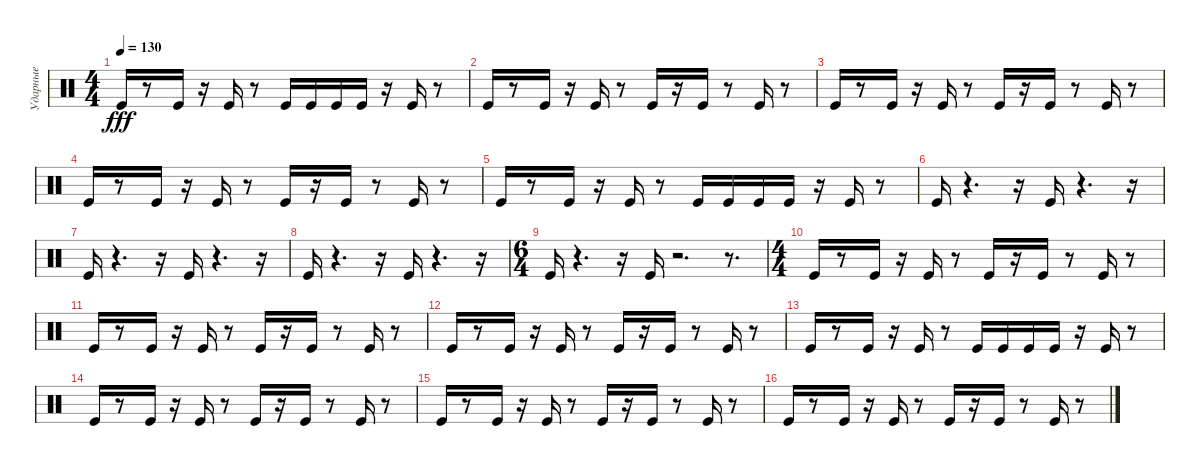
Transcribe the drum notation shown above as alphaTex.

\track ("Ударные" "Ударные") {instrument percussion}
\staff {score}
\articulation defaults
\ts (4 4)
\tempo 130
\clef neutral
\ks c "Kick (hit)".16{dy fff}
r.8 "Kick (hit)".16 r.16 "Kick (hit)".16 r.8 "Kick (hit)".16 "Kick (hit)".16 "Kick (hit)".16 "Kick (hit)".16 r.16 "Kick (hit)".16 r.8 |
"Kick (hit)".16 r.8 "Kick (hit)".16 r.16 "Kick (hit)".16 r.8 "Kick (hit)".16 r.16 "Kick (hit)".16 r.8 "Kick (hit)".16 r.8 |
"Kick (hit)".16 r.8 "Kick (hit)".16 r.16 "Kick (hit)".16 r.8 "Kick (hit)".16 r.16 "Kick (hit)".16 r.8 "Kick (hit)".16 r.8 |
"Kick (hit)".16 r.8 "Kick (hit)".16 r.16 "Kick (hit)".16 r.8 "Kick (hit)".16 r.16 "Kick (hit)".16 r.8 "Kick (hit)".16 r.8 |
"Kick (hit)".16 r.8 "Kick (hit)".16 r.16 "Kick (hit)".16 r.8 "Kick (hit)".16 "Kick (hit)".16 "Kick (hit)".16 "Kick (hit)".16 r.16 "Kick (hit)".16 r.8 |
"Kick (hit)".16 r.4{d} r.16 "Kick (hit)".16 r.4{d} r.16 |
"Kick (hit)".16 r.4{d} r.16 "Kick (hit)".16 r.4{d} r.16 |
"Kick (hit)".16 r.4{d} r.16 "Kick (hit)".16 r.4{d} r.16 |
\ts (6 4)
"Kick (hit)".16 r.4{d} r.16 "Kick (hit)".16 r.2{d} r.8{d} |
\ts (4 4)
"Kick (hit)".16 r.8 "Kick (hit)".16 r.16 "Kick (hit)".16 r.8 "Kick (hit)".16 r.16 "Kick (hit)".16 r.8 "Kick (hit)".16 r.8 |
"Kick (hit)".16 r.8 "Kick (hit)".16 r.16 "Kick (hit)".16 r.8 "Kick (hit)".16 r.16 "Kick (hit)".16 r.8 "Kick (hit)".16 r.8 |
"Kick (hit)".16 r.8 "Kick (hit)".16 r.16 "Kick (hit)".16 r.8 "Kick (hit)".16 r.16 "Kick (hit)".16 r.8 "Kick (hit)".16 r.8 |
"Kick (hit)".16 r.8 "Kick (hit)".16 r.16 "Kick (hit)".16 r.8 "Kick (hit)".16 "Kick (hit)".16 "Kick (hit)".16 "Kick (hit)".16 r.16 "Kick (hit)".16 r.8 |
"Kick (hit)".16 r.8 "Kick (hit)".16 r.16 "Kick (hit)".16 r.8 "Kick (hit)".16 r.16 "Kick (hit)".16 r.8 "Kick (hit)".16 r.8 |
"Kick (hit)".16 r.8 "Kick (hit)".16 r.16 "Kick (hit)".16 r.8 "Kick (hit)".16 r.16 "Kick (hit)".16 r.8 "Kick (hit)".16 r.8 |
"Kick (hit)".16 r.8 "Kick (hit)".16 r.16 "Kick (hit)".16 r.8 "Kick (hit)".16 r.16 "Kick (hit)".16 r.8 "Kick (hit)".16 r.8
